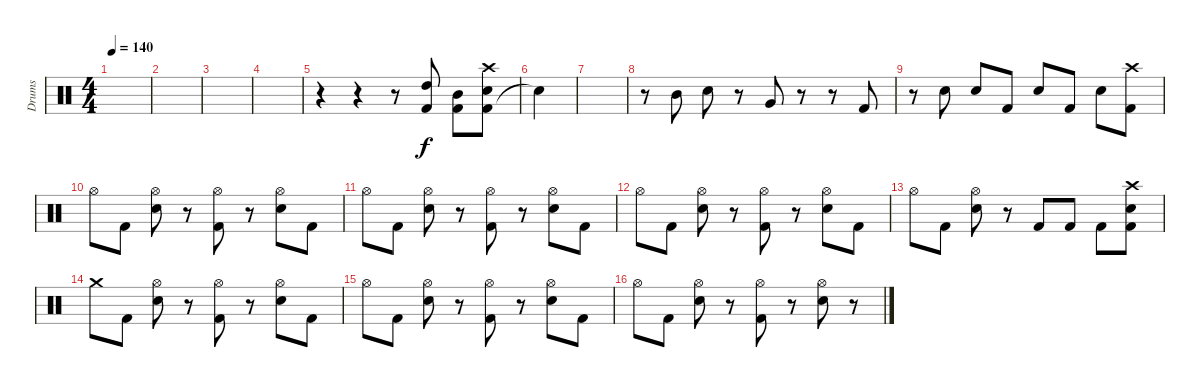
\track ("Drums" "Drums") {instrument percussion}
\staff {score}
\articulation defaults
\ts (4 4)
\tempo 140
\clef neutral
\ks c
|
|
|
|
r.4 r.4 r.8 ("Kick (hit) 2" "High Tom (hit)").8 ("Kick (hit) 2" "Mid Tom (hit)").8 ("Kick (hit) 2" "Electric Snare (hit)" "Crash high (hit)").8 |
"Snare (hit)"{t}.4{dy f} |
|
r.8 "Mid Tom (hit)".8 "Electric Snare (hit)".8 r.8 "Very Low Tom (hit)".8 r.8 r.8 "Kick (hit) 2".8 |
r.8 "Electric Snare (hit)".8 "Electric Snare (hit)".8 "Kick (hit) 2".8 "Electric Snare (hit)".8 "Kick (hit) 2".8 "Electric Snare (hit)".8 ("Crash high (hit)" "Kick (hit) 2").8 |
"Hi-Hat (open)".8 "Kick (hit) 2".8 ("Hi-Hat (open)" "Electric Snare (hit)").8 r.8 ("Hi-Hat (open)" "Kick (hit) 2").8 r.8 ("Hi-Hat (open)" "Electric Snare (hit)").8 "Kick (hit) 2".8 |
"Hi-Hat (open)".8 "Kick (hit) 2".8 ("Hi-Hat (open)" "Electric Snare (hit)").8 r.8 ("Hi-Hat (open)" "Kick (hit) 2").8 r.8 ("Hi-Hat (open)" "Electric Snare (hit)").8 "Kick (hit) 2".8 |
"Hi-Hat (open)".8 "Kick (hit) 2".8 ("Hi-Hat (open)" "Electric Snare (hit)").8 r.8 ("Hi-Hat (open)" "Kick (hit) 2").8 r.8 ("Hi-Hat (open)" "Electric Snare (hit)").8 "Kick (hit) 2".8 |
"Hi-Hat (open)".8 "Kick (hit) 2".8 ("Hi-Hat (open)" "Electric Snare (hit)").8 r.8 "Kick (hit) 2".8 "Kick (hit) 2".8 "Kick (hit) 2".8 ("Crash high (hit)" "Kick (hit) 2" "Electric Snare (hit)").8 |
"Crash medium (hit)".8 "Kick (hit) 2".8 ("Hi-Hat (open)" "Electric Snare (hit)").8 r.8 ("Hi-Hat (open)" "Kick (hit) 2").8 r.8 ("Hi-Hat (open)" "Electric Snare (hit)").8 "Kick (hit) 2".8 |
"Hi-Hat (open)".8 "Kick (hit) 2".8 ("Hi-Hat (open)" "Electric Snare (hit)").8 r.8 ("Hi-Hat (open)" "Kick (hit) 2").8 r.8 ("Hi-Hat (open)" "Electric Snare (hit)").8 "Kick (hit) 2".8 |
"Hi-Hat (open)".8 "Kick (hit) 2".8 ("Hi-Hat (open)" "Electric Snare (hit)").8 r.8 ("Hi-Hat (open)" "Kick (hit) 2").8 r.8 ("Hi-Hat (open)" "Electric Snare (hit)").8 r.8
